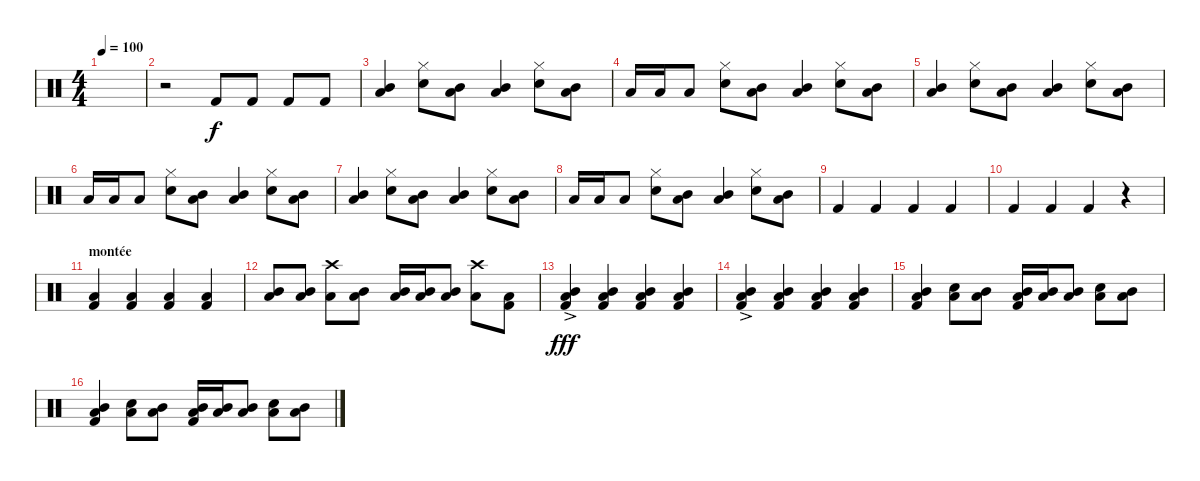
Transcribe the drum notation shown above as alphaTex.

\track "" {instrument percussion}
\staff {score}
\articulation defaults
\ts (4 4)
\tempo 100
\clef neutral
\ks c
|
r.2 "Kick (hit) 2".8 "Kick (hit) 2".8 "Kick (hit) 2".8 "Kick (hit) 2".8 |
("Mid Tom (hit)" "Low Tom (hit)").4 ("Hi-Hat (closed)" "Snare (hit) 2").8 ("Mid Tom (hit)" "Low Tom (hit)").8 ("Mid Tom (hit)" "Low Tom (hit)").4 ("Hi-Hat (closed)" "Snare (hit) 2").8 ("Mid Tom (hit)" "Low Tom (hit)").8 |
"Low Tom (hit)".16 "Low Tom (hit)".16 "Low Tom (hit)".8 ("Hi-Hat (closed)" "Snare (hit) 2").8 ("Mid Tom (hit)" "Low Tom (hit)").8 ("Mid Tom (hit)" "Low Tom (hit)").4 ("Hi-Hat (closed)" "Snare (hit) 2").8 ("Mid Tom (hit)" "Low Tom (hit)").8 |
("Mid Tom (hit)" "Low Tom (hit)").4 ("Hi-Hat (closed)" "Snare (hit) 2").8 ("Mid Tom (hit)" "Low Tom (hit)").8 ("Mid Tom (hit)" "Low Tom (hit)").4 ("Hi-Hat (closed)" "Snare (hit) 2").8 ("Mid Tom (hit)" "Low Tom (hit)").8 |
"Low Tom (hit)".16 "Low Tom (hit)".16 "Low Tom (hit)".8 ("Hi-Hat (closed)" "Snare (hit) 2").8 ("Mid Tom (hit)" "Low Tom (hit)").8 ("Mid Tom (hit)" "Low Tom (hit)").4 ("Hi-Hat (closed)" "Snare (hit) 2").8 ("Mid Tom (hit)" "Low Tom (hit)").8 |
("Mid Tom (hit)" "Low Tom (hit)").4 ("Hi-Hat (closed)" "Snare (hit) 2").8 ("Mid Tom (hit)" "Low Tom (hit)").8 ("Mid Tom (hit)" "Low Tom (hit)").4 ("Hi-Hat (closed)" "Snare (hit) 2").8 ("Mid Tom (hit)" "Low Tom (hit)").8 |
"Low Tom (hit)".16 "Low Tom (hit)".16 "Low Tom (hit)".8 ("Hi-Hat (closed)" "Snare (hit) 2").8 ("Mid Tom (hit)" "Low Tom (hit)").8 ("Mid Tom (hit)" "Low Tom (hit)").4 ("Hi-Hat (closed)" "Snare (hit) 2").8 ("Mid Tom (hit)" "Low Tom (hit)").8 |
"Kick (hit) 2".4 "Kick (hit) 2".4 "Kick (hit) 2".4 "Kick (hit) 2".4 |
"Kick (hit) 2".4 "Kick (hit) 2".4 "Kick (hit) 2".4 r.4 |
\section ("" "montée")
("Low Tom (hit)" "Kick (hit) 2").4 ("Low Tom (hit)" "Kick (hit) 2").4 ("Low Tom (hit)" "Kick (hit) 2").4 ("Low Tom (hit)" "Kick (hit) 2").4 |
("Low Tom (hit)" "Mid Tom (hit)").8 ("Low Tom (hit)" "Mid Tom (hit)").8 ("Low Tom (hit)" "Crash high (hit)").8 ("Low Tom (hit)" "Mid Tom (hit)").8 ("Mid Tom (hit)" "Low Tom (hit)").16 ("Mid Tom (hit)" "Low Tom (hit)").16 ("Mid Tom (hit)" "Low Tom (hit)").8 ("Low Tom (hit)" "Crash high (hit)").8 ("Kick (hit) 2" "Low Tom (hit)").8 |
("Mid Tom (hit)"{ac} "Low Tom (hit)"{ac} "Kick (hit) 2").4{dy fff} ("Mid Tom (hit)" "Low Tom (hit)" "Kick (hit) 2").4 ("Mid Tom (hit)" "Low Tom (hit)" "Kick (hit) 2").4 ("Mid Tom (hit)" "Low Tom (hit)" "Kick (hit) 2").4 |
("Mid Tom (hit)"{ac} "Low Tom (hit)"{ac} "Kick (hit) 2").4 ("Mid Tom (hit)" "Low Tom (hit)" "Kick (hit) 2").4 ("Mid Tom (hit)" "Low Tom (hit)" "Kick (hit) 2").4 ("Mid Tom (hit)" "Low Tom (hit)" "Kick (hit) 2").4 |
("Mid Tom (hit)" "Low Tom (hit)" "Kick (hit) 2").4 ("Electric Snare (hit)" "Low Tom (hit)").8 ("Mid Tom (hit)" "Low Tom (hit)").8 ("Mid Tom (hit)" "Low Tom (hit)" "Kick (hit) 2").16 ("Mid Tom (hit)" "Low Tom (hit)").16 ("Mid Tom (hit)" "Low Tom (hit)").8 ("Electric Snare (hit)" "Low Tom (hit)").8 ("Mid Tom (hit)" "Low Tom (hit)").8 |
("Mid Tom (hit)" "Low Tom (hit)" "Kick (hit) 2").4 ("Electric Snare (hit)" "Low Tom (hit)").8 ("Mid Tom (hit)" "Low Tom (hit)").8 ("Mid Tom (hit)" "Low Tom (hit)" "Kick (hit) 2").16 ("Mid Tom (hit)" "Low Tom (hit)").16 ("Mid Tom (hit)" "Low Tom (hit)").8 ("Electric Snare (hit)" "Low Tom (hit)").8 ("Mid Tom (hit)" "Low Tom (hit)").8
